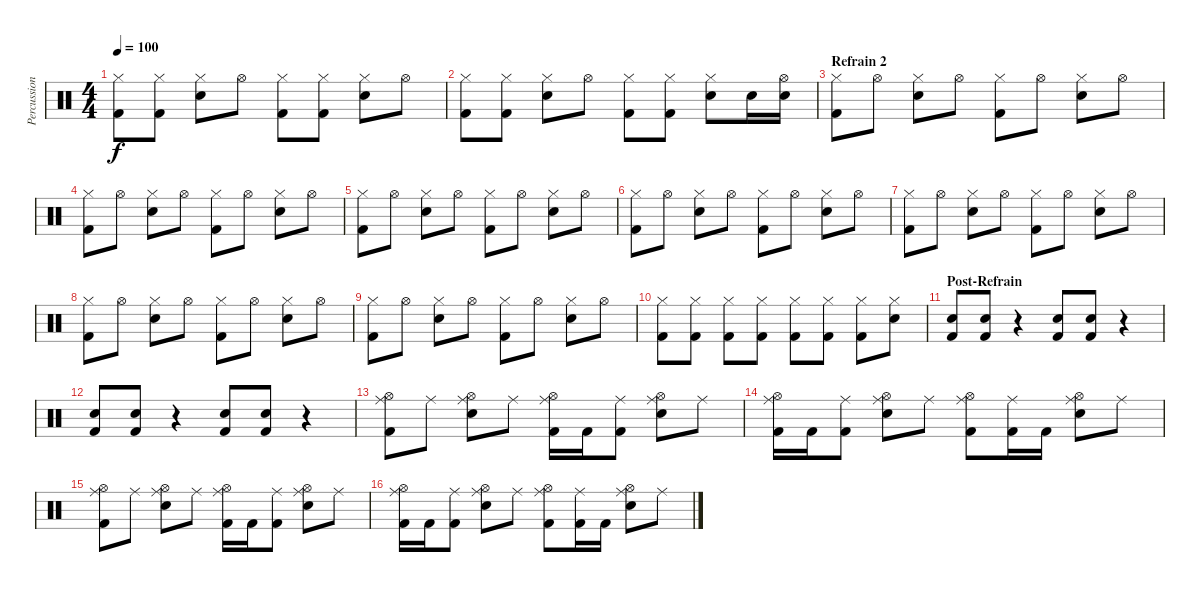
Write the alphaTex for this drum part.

\track ("Percussions" "Percussion") {instrument percussion}
\staff {score}
\articulation defaults
\ts (4 4)
\tempo 100
\clef neutral
\ks c
("Hi-Hat (closed)" "Kick (hit) 2").8{dy f} ("Hi-Hat (closed)" "Kick (hit) 2").8 ("Hi-Hat (closed)" "Snare (hit) 2").8 "Hi-Hat (open)".8 ("Hi-Hat (closed)" "Kick (hit) 2").8 ("Hi-Hat (closed)" "Kick (hit) 2").8 ("Hi-Hat (closed)" "Snare (hit) 2").8 "Hi-Hat (open)".8 |
("Hi-Hat (closed)" "Kick (hit) 2").8 ("Hi-Hat (closed)" "Kick (hit) 2").8 ("Hi-Hat (closed)" "Snare (hit) 2").8 "Hi-Hat (open)".8 ("Hi-Hat (closed)" "Kick (hit) 2").8 ("Hi-Hat (closed)" "Kick (hit) 2").8 ("Hi-Hat (closed)" "Snare (hit) 2").8 "Snare (hit) 2".16 ("Hi-Hat (open)" "Snare (hit) 2").16 |
\section ("" "Refrain 2")
("Hi-Hat (closed)" "Kick (hit) 2").8 "Hi-Hat (open)".8 ("Hi-Hat (closed)" "Snare (hit) 2").8 "Hi-Hat (open)".8 ("Hi-Hat (closed)" "Kick (hit) 2").8 "Hi-Hat (open)".8 ("Hi-Hat (closed)" "Snare (hit) 2").8 "Hi-Hat (open)".8 |
("Hi-Hat (closed)" "Kick (hit) 2").8 "Hi-Hat (open)".8 ("Hi-Hat (closed)" "Snare (hit) 2").8 "Hi-Hat (open)".8 ("Hi-Hat (closed)" "Kick (hit) 2").8 "Hi-Hat (open)".8 ("Hi-Hat (closed)" "Snare (hit) 2").8 "Hi-Hat (open)".8 |
("Hi-Hat (closed)" "Kick (hit) 2").8 "Hi-Hat (open)".8 ("Hi-Hat (closed)" "Snare (hit) 2").8 "Hi-Hat (open)".8 ("Hi-Hat (closed)" "Kick (hit) 2").8 "Hi-Hat (open)".8 ("Hi-Hat (closed)" "Snare (hit) 2").8 "Hi-Hat (open)".8 |
("Hi-Hat (closed)" "Kick (hit) 2").8 "Hi-Hat (open)".8 ("Hi-Hat (closed)" "Snare (hit) 2").8 "Hi-Hat (open)".8 ("Hi-Hat (closed)" "Kick (hit) 2").8 "Hi-Hat (open)".8 ("Hi-Hat (closed)" "Snare (hit) 2").8 "Hi-Hat (open)".8 |
("Hi-Hat (closed)" "Kick (hit) 2").8 "Hi-Hat (open)".8 ("Hi-Hat (closed)" "Snare (hit) 2").8 "Hi-Hat (open)".8 ("Hi-Hat (closed)" "Kick (hit) 2").8 "Hi-Hat (open)".8 ("Hi-Hat (closed)" "Snare (hit) 2").8 "Hi-Hat (open)".8 |
("Hi-Hat (closed)" "Kick (hit) 2").8 "Hi-Hat (open)".8 ("Hi-Hat (closed)" "Snare (hit) 2").8 "Hi-Hat (open)".8 ("Hi-Hat (closed)" "Kick (hit) 2").8 "Hi-Hat (open)".8 ("Hi-Hat (closed)" "Snare (hit) 2").8 "Hi-Hat (open)".8 |
("Hi-Hat (closed)" "Kick (hit) 2").8 "Hi-Hat (open)".8 ("Hi-Hat (closed)" "Snare (hit) 2").8 "Hi-Hat (open)".8 ("Hi-Hat (closed)" "Kick (hit) 2").8 "Hi-Hat (open)".8 ("Hi-Hat (closed)" "Snare (hit) 2").8 "Hi-Hat (open)".8 |
("Hi-Hat (closed)" "Kick (hit) 2").8 ("Hi-Hat (closed)" "Kick (hit) 2").8 ("Hi-Hat (closed)" "Kick (hit) 2").8 ("Hi-Hat (closed)" "Kick (hit) 2").8 ("Hi-Hat (closed)" "Kick (hit) 2").8 ("Hi-Hat (closed)" "Kick (hit) 2").8 ("Hi-Hat (closed)" "Kick (hit) 2").8 ("Hi-Hat (closed)" "Snare (hit) 2").8 |
\section ("" "Post-Refrain")
("Snare (hit) 2" "Kick (hit) 2").8 ("Snare (hit) 2" "Kick (hit) 2").8 r.4 ("Snare (hit) 2" "Kick (hit) 2").8 ("Snare (hit) 2" "Kick (hit) 2").8 r.4 |
("Snare (hit) 2" "Kick (hit) 2").8 ("Snare (hit) 2" "Kick (hit) 2").8 r.4 ("Snare (hit) 2" "Kick (hit) 2").8 ("Snare (hit) 2" "Kick (hit) 2").8 r.4 |
("Ride (middle)" "Hi-Hat (open)" "Kick (hit) 2").8 "Ride (middle)".8 ("Ride (middle)" "Hi-Hat (open)" "Snare (hit) 2").8 "Ride (middle)".8 ("Ride (middle)" "Hi-Hat (open)" "Kick (hit) 2").16 "Kick (hit) 2".16 ("Ride (middle)" "Kick (hit) 2").8 ("Ride (middle)" "Hi-Hat (open)" "Snare (hit) 2").8 "Ride (middle)".8 |
("Ride (middle)" "Hi-Hat (open)" "Kick (hit) 2").16 "Kick (hit) 2".16 ("Ride (middle)" "Kick (hit) 2").8 ("Ride (middle)" "Hi-Hat (open)" "Snare (hit) 2").8 "Ride (middle)".8 ("Ride (middle)" "Hi-Hat (open)" "Kick (hit) 2").8 ("Ride (middle)" "Kick (hit) 2").16 "Kick (hit) 2".16 ("Ride (middle)" "Hi-Hat (open)" "Snare (hit) 2").8 "Ride (middle)".8 |
("Ride (middle)" "Hi-Hat (open)" "Kick (hit) 2").8 "Ride (middle)".8 ("Ride (middle)" "Hi-Hat (open)" "Snare (hit) 2").8 "Ride (middle)".8 ("Ride (middle)" "Hi-Hat (open)" "Kick (hit) 2").16 "Kick (hit) 2".16 ("Ride (middle)" "Kick (hit) 2").8 ("Ride (middle)" "Hi-Hat (open)" "Snare (hit) 2").8 "Ride (middle)".8 |
("Ride (middle)" "Hi-Hat (open)" "Kick (hit) 2").16 "Kick (hit) 2".16 ("Ride (middle)" "Kick (hit) 2").8 ("Ride (middle)" "Hi-Hat (open)" "Snare (hit) 2").8 "Ride (middle)".8 ("Ride (middle)" "Hi-Hat (open)" "Kick (hit) 2").8 ("Ride (middle)" "Kick (hit) 2").16 "Kick (hit) 2".16 ("Ride (middle)" "Hi-Hat (open)" "Snare (hit) 2").8 "Ride (middle)".8
